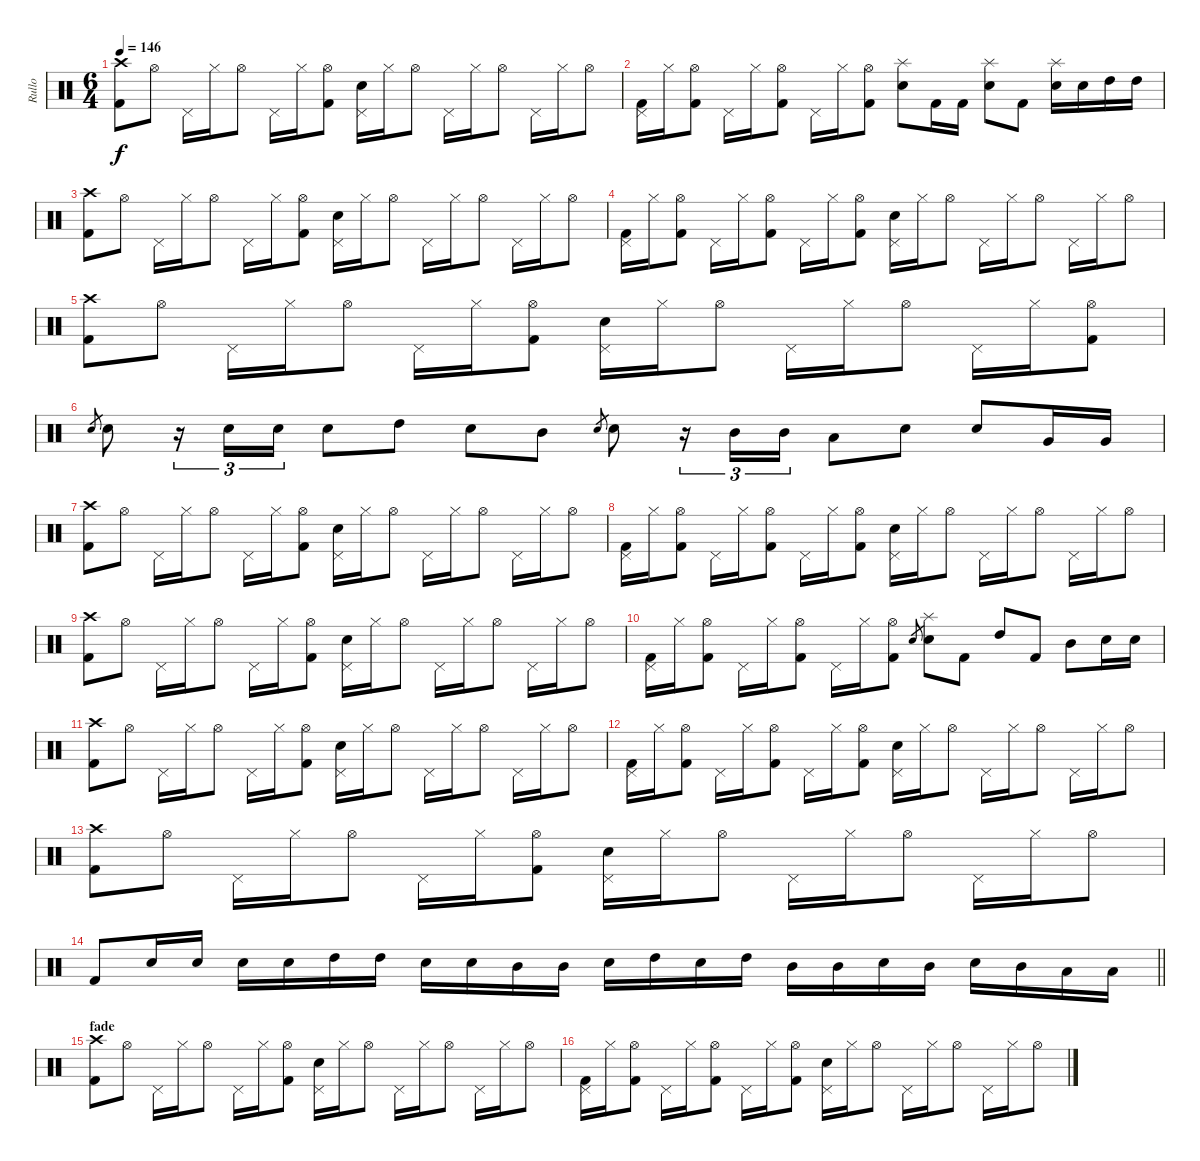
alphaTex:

\track ("Rullo" "Rullo") {instrument percussion}
\staff {score}
\articulation defaults
\ts (6 4)
\tempo 146
\clef neutral
\ks c
("Crash high (hit)" "Kick (hit) 2").8{dy f} "Hi-Hat (open)".8 "Pedal Hi-Hat (hit)".16 "Hi-Hat (closed)".16 "Hi-Hat (open)".8 "Pedal Hi-Hat (hit)".16 "Hi-Hat (closed)".16 ("Hi-Hat (open)" "Kick (hit) 2").8 ("Pedal Hi-Hat (hit)" "Electric Snare (hit)").16 "Hi-Hat (closed)".16 "Hi-Hat (open)".8 "Pedal Hi-Hat (hit)".16 "Hi-Hat (closed)".16 "Hi-Hat (open)".8 "Pedal Hi-Hat (hit)".16 "Hi-Hat (closed)".16 "Hi-Hat (open)".8 |
("Pedal Hi-Hat (hit)" "Kick (hit) 2").16 "Hi-Hat (closed)".16 ("Hi-Hat (open)" "Kick (hit) 2").8 "Pedal Hi-Hat (hit)".16 "Hi-Hat (closed)".16 ("Hi-Hat (open)" "Kick (hit) 2").8 "Pedal Hi-Hat (hit)".16 "Hi-Hat (closed)".16 ("Hi-Hat (open)" "Kick (hit) 2").8 ("Splash (hit)" "Electric Snare (hit)").8 "Kick (hit) 2".16 "Kick (hit) 2".16 ("Splash (hit)" "Electric Snare (hit)").8 "Kick (hit) 2".8 ("Splash (hit)" "Electric Snare (hit)").16 "Electric Snare (hit)".16 "High Tom (hit)".16 "High Tom (hit)".16 |
("Crash high (hit)" "Kick (hit) 2").8 "Hi-Hat (open)".8 "Pedal Hi-Hat (hit)".16 "Hi-Hat (closed)".16 "Hi-Hat (open)".8 "Pedal Hi-Hat (hit)".16 "Hi-Hat (closed)".16 ("Hi-Hat (open)" "Kick (hit) 2").8 ("Pedal Hi-Hat (hit)" "Electric Snare (hit)").16 "Hi-Hat (closed)".16 "Hi-Hat (open)".8 "Pedal Hi-Hat (hit)".16 "Hi-Hat (closed)".16 "Hi-Hat (open)".8 "Pedal Hi-Hat (hit)".16 "Hi-Hat (closed)".16 "Hi-Hat (open)".8 |
("Pedal Hi-Hat (hit)" "Kick (hit) 2").16 "Hi-Hat (closed)".16 ("Hi-Hat (open)" "Kick (hit) 2").8 "Pedal Hi-Hat (hit)".16 "Hi-Hat (closed)".16 ("Hi-Hat (open)" "Kick (hit) 2").8 "Pedal Hi-Hat (hit)".16 "Hi-Hat (closed)".16 ("Hi-Hat (open)" "Kick (hit) 2").8 ("Pedal Hi-Hat (hit)" "Electric Snare (hit)").16 "Hi-Hat (closed)".16 "Hi-Hat (open)".8 "Pedal Hi-Hat (hit)".16 "Hi-Hat (closed)".16 "Hi-Hat (open)".8 "Pedal Hi-Hat (hit)".16 "Hi-Hat (closed)".16 "Hi-Hat (open)".8 |
("Crash high (hit)" "Kick (hit) 2").8 "Hi-Hat (open)".8 "Pedal Hi-Hat (hit)".16 "Hi-Hat (closed)".16 "Hi-Hat (open)".8 "Pedal Hi-Hat (hit)".16 "Hi-Hat (closed)".16 ("Hi-Hat (open)" "Kick (hit) 2").8 ("Pedal Hi-Hat (hit)" "Electric Snare (hit)").16 "Hi-Hat (closed)".16 "Hi-Hat (open)".8 "Pedal Hi-Hat (hit)".16 "Hi-Hat (closed)".16 "Hi-Hat (open)".8 "Pedal Hi-Hat (hit)".16 "Hi-Hat (closed)".16 ("Hi-Hat (open)" "Kick (hit) 2").8 |
"Electric Snare (hit)".8{gr} "Electric Snare (hit)".8 r.16{tu (3 2)} "Electric Snare (hit)".16{tu (3 2)} "Electric Snare (hit)".16{tu (3 2)} "Electric Snare (hit)".8 "High Tom (hit)".8 "Electric Snare (hit)".8 "Mid Tom (hit)".8 "Electric Snare (hit)".8{gr} "Electric Snare (hit)".8 r.16{tu (3 2)} "Mid Tom (hit)".16{tu (3 2)} "Mid Tom (hit)".16{tu (3 2)} "Low Tom (hit)".8 "Electric Snare (hit)".8 "Electric Snare (hit)".8 "Very Low Tom (hit)".16 "Very Low Tom (hit)".16 |
("Crash high (hit)" "Kick (hit) 2").8 "Hi-Hat (open)".8 "Pedal Hi-Hat (hit)".16 "Hi-Hat (closed)".16 "Hi-Hat (open)".8 "Pedal Hi-Hat (hit)".16 "Hi-Hat (closed)".16 ("Hi-Hat (open)" "Kick (hit) 2").8 ("Pedal Hi-Hat (hit)" "Electric Snare (hit)").16 "Hi-Hat (closed)".16 "Hi-Hat (open)".8 "Pedal Hi-Hat (hit)".16 "Hi-Hat (closed)".16 "Hi-Hat (open)".8 "Pedal Hi-Hat (hit)".16 "Hi-Hat (closed)".16 "Hi-Hat (open)".8 |
("Pedal Hi-Hat (hit)" "Kick (hit) 2").16 "Hi-Hat (closed)".16 ("Hi-Hat (open)" "Kick (hit) 2").8 "Pedal Hi-Hat (hit)".16 "Hi-Hat (closed)".16 ("Hi-Hat (open)" "Kick (hit) 2").8 "Pedal Hi-Hat (hit)".16 "Hi-Hat (closed)".16 ("Hi-Hat (open)" "Kick (hit) 2").8 ("Pedal Hi-Hat (hit)" "Electric Snare (hit)").16 "Hi-Hat (closed)".16 "Hi-Hat (open)".8 "Pedal Hi-Hat (hit)".16 "Hi-Hat (closed)".16 "Hi-Hat (open)".8 "Pedal Hi-Hat (hit)".16 "Hi-Hat (closed)".16 "Hi-Hat (open)".8 |
("Crash high (hit)" "Kick (hit) 2").8 "Hi-Hat (open)".8 "Pedal Hi-Hat (hit)".16 "Hi-Hat (closed)".16 "Hi-Hat (open)".8 "Pedal Hi-Hat (hit)".16 "Hi-Hat (closed)".16 ("Hi-Hat (open)" "Kick (hit) 2").8 ("Pedal Hi-Hat (hit)" "Electric Snare (hit)").16 "Hi-Hat (closed)".16 "Hi-Hat (open)".8 "Pedal Hi-Hat (hit)".16 "Hi-Hat (closed)".16 "Hi-Hat (open)".8 "Pedal Hi-Hat (hit)".16 "Hi-Hat (closed)".16 "Hi-Hat (open)".8 |
("Pedal Hi-Hat (hit)" "Kick (hit) 2").16 "Hi-Hat (closed)".16 ("Hi-Hat (open)" "Kick (hit) 2").8 "Pedal Hi-Hat (hit)".16 "Hi-Hat (closed)".16 ("Hi-Hat (open)" "Kick (hit) 2").8 "Pedal Hi-Hat (hit)".16 "Hi-Hat (closed)".16 ("Hi-Hat (open)" "Kick (hit) 2").8 "Electric Snare (hit)".8{gr} ("Splash (hit)" "Electric Snare (hit)").8 "Kick (hit) 2".8 "High Tom (hit)".8 "Kick (hit) 2".8 "Mid Tom (hit)".8 "Electric Snare (hit)".16 "Electric Snare (hit)".16 |
("Crash high (hit)" "Kick (hit) 2").8 "Hi-Hat (open)".8 "Pedal Hi-Hat (hit)".16 "Hi-Hat (closed)".16 "Hi-Hat (open)".8 "Pedal Hi-Hat (hit)".16 "Hi-Hat (closed)".16 ("Hi-Hat (open)" "Kick (hit) 2").8 ("Pedal Hi-Hat (hit)" "Electric Snare (hit)").16 "Hi-Hat (closed)".16 "Hi-Hat (open)".8 "Pedal Hi-Hat (hit)".16 "Hi-Hat (closed)".16 "Hi-Hat (open)".8 "Pedal Hi-Hat (hit)".16 "Hi-Hat (closed)".16 "Hi-Hat (open)".8 |
("Pedal Hi-Hat (hit)" "Kick (hit) 2").16 "Hi-Hat (closed)".16 ("Hi-Hat (open)" "Kick (hit) 2").8 "Pedal Hi-Hat (hit)".16 "Hi-Hat (closed)".16 ("Hi-Hat (open)" "Kick (hit) 2").8 "Pedal Hi-Hat (hit)".16 "Hi-Hat (closed)".16 ("Hi-Hat (open)" "Kick (hit) 2").8 ("Pedal Hi-Hat (hit)" "Electric Snare (hit)").16 "Hi-Hat (closed)".16 "Hi-Hat (open)".8 "Pedal Hi-Hat (hit)".16 "Hi-Hat (closed)".16 "Hi-Hat (open)".8 "Pedal Hi-Hat (hit)".16 "Hi-Hat (closed)".16 "Hi-Hat (open)".8 |
("Crash high (hit)" "Kick (hit) 2").8 "Hi-Hat (open)".8 "Pedal Hi-Hat (hit)".16 "Hi-Hat (closed)".16 "Hi-Hat (open)".8 "Pedal Hi-Hat (hit)".16 "Hi-Hat (closed)".16 ("Hi-Hat (open)" "Kick (hit) 2").8 ("Pedal Hi-Hat (hit)" "Electric Snare (hit)").16 "Hi-Hat (closed)".16 "Hi-Hat (open)".8 "Pedal Hi-Hat (hit)".16 "Hi-Hat (closed)".16 "Hi-Hat (open)".8 "Pedal Hi-Hat (hit)".16 "Hi-Hat (closed)".16 "Hi-Hat (open)".8 |
\barLineRight lightlight "Kick (hit) 2".8 "Electric Snare (hit)".16 "Electric Snare (hit)".16 "Electric Snare (hit)".16 "Electric Snare (hit)".16 "High Tom (hit)".16 "High Tom (hit)".16 "Electric Snare (hit)".16 "Electric Snare (hit)".16 "Mid Tom (hit)".16 "Mid Tom (hit)".16 "Electric Snare (hit)".16 "High Tom (hit)".16 "Electric Snare (hit)".16 "High Tom (hit)".16 "Mid Tom (hit)".16 "Mid Tom (hit)".16 "Electric Snare (hit)".16 "Mid Tom (hit)".16 "Electric Snare (hit)".16 "Mid Tom (hit)".16 "Low Tom (hit)".16 "Low Tom (hit)".16
|
\section ("" "fade")
("Crash high (hit)" "Kick (hit) 2").8{volume 8} "Hi-Hat (open)".8 "Pedal Hi-Hat (hit)".16 "Hi-Hat (closed)".16 "Hi-Hat (open)".8 "Pedal Hi-Hat (hit)".16 "Hi-Hat (closed)".16 ("Hi-Hat (open)" "Kick (hit) 2").8 ("Pedal Hi-Hat (hit)" "Electric Snare (hit)").16 "Hi-Hat (closed)".16 "Hi-Hat (open)".8 "Pedal Hi-Hat (hit)".16 "Hi-Hat (closed)".16 "Hi-Hat (open)".8 "Pedal Hi-Hat (hit)".16 "Hi-Hat (closed)".16 "Hi-Hat (open)".8 |
("Pedal Hi-Hat (hit)" "Kick (hit) 2").16 "Hi-Hat (closed)".16 ("Hi-Hat (open)" "Kick (hit) 2").8 "Pedal Hi-Hat (hit)".16 "Hi-Hat (closed)".16 ("Hi-Hat (open)" "Kick (hit) 2").8 "Pedal Hi-Hat (hit)".16 "Hi-Hat (closed)".16 ("Hi-Hat (open)" "Kick (hit) 2").8 ("Pedal Hi-Hat (hit)" "Electric Snare (hit)").16 "Hi-Hat (closed)".16 "Hi-Hat (open)".8 "Pedal Hi-Hat (hit)".16 "Hi-Hat (closed)".16 "Hi-Hat (open)".8 "Pedal Hi-Hat (hit)".16 "Hi-Hat (closed)".16 "Hi-Hat (open)".8
